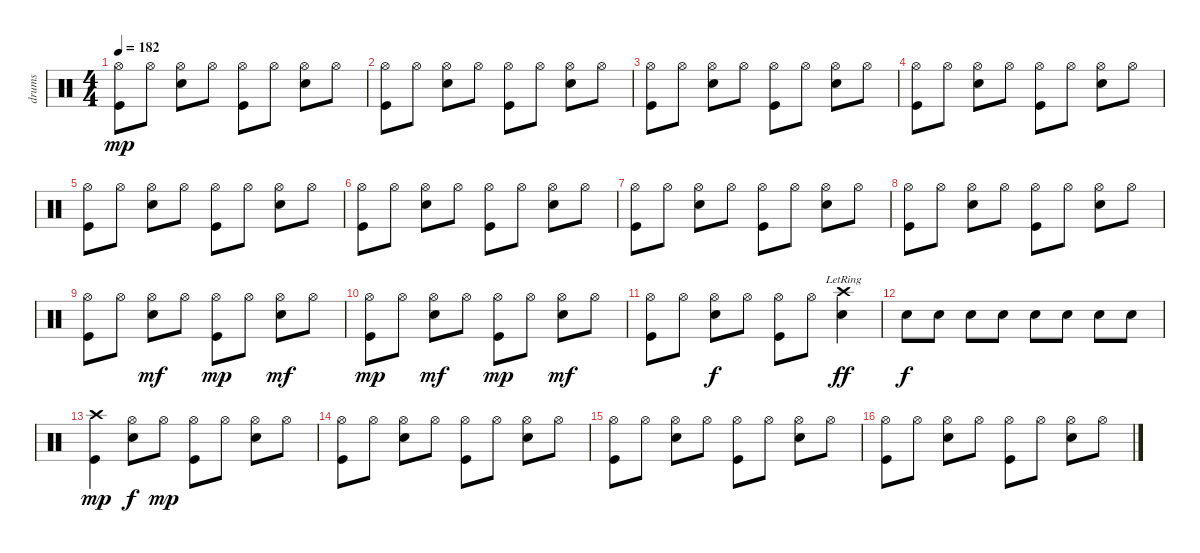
\track ("drums" "drums") {instrument percussion}
\staff {score}
\articulation defaults
\ts (4 4)
\tempo 182
\clef neutral
\ks c
("Kick (hit)" "Hi-Hat (open)").8{dy mp} "Hi-Hat (open)".8 ("Snare (hit) 2" "Hi-Hat (open)").8 "Hi-Hat (open)".8 ("Kick (hit)" "Hi-Hat (open)").8 "Hi-Hat (open)".8 ("Snare (hit) 2" "Hi-Hat (open)").8 "Hi-Hat (open)".8 |
("Kick (hit)" "Hi-Hat (open)").8 "Hi-Hat (open)".8 ("Snare (hit) 2" "Hi-Hat (open)").8 "Hi-Hat (open)".8 ("Kick (hit)" "Hi-Hat (open)").8 "Hi-Hat (open)".8 ("Snare (hit) 2" "Hi-Hat (open)").8 "Hi-Hat (open)".8 |
("Kick (hit)" "Hi-Hat (open)").8 "Hi-Hat (open)".8 ("Snare (hit) 2" "Hi-Hat (open)").8 "Hi-Hat (open)".8 ("Kick (hit)" "Hi-Hat (open)").8 "Hi-Hat (open)".8 ("Snare (hit) 2" "Hi-Hat (open)").8 "Hi-Hat (open)".8 |
("Kick (hit)" "Hi-Hat (open)").8 "Hi-Hat (open)".8 ("Snare (hit) 2" "Hi-Hat (open)").8 "Hi-Hat (open)".8 ("Kick (hit)" "Hi-Hat (open)").8 "Hi-Hat (open)".8 ("Snare (hit) 2" "Hi-Hat (open)").8 "Hi-Hat (open)".8 |
("Kick (hit)" "Hi-Hat (open)").8 "Hi-Hat (open)".8 ("Snare (hit) 2" "Hi-Hat (open)").8 "Hi-Hat (open)".8 ("Kick (hit)" "Hi-Hat (open)").8 "Hi-Hat (open)".8 ("Snare (hit) 2" "Hi-Hat (open)").8 "Hi-Hat (open)".8 |
("Kick (hit)" "Hi-Hat (open)").8 "Hi-Hat (open)".8 ("Snare (hit) 2" "Hi-Hat (open)").8 "Hi-Hat (open)".8 ("Kick (hit)" "Hi-Hat (open)").8 "Hi-Hat (open)".8 ("Snare (hit) 2" "Hi-Hat (open)").8 "Hi-Hat (open)".8 |
("Kick (hit)" "Hi-Hat (open)").8 "Hi-Hat (open)".8 ("Snare (hit) 2" "Hi-Hat (open)").8 "Hi-Hat (open)".8 ("Kick (hit)" "Hi-Hat (open)").8 "Hi-Hat (open)".8 ("Snare (hit) 2" "Hi-Hat (open)").8 "Hi-Hat (open)".8 |
("Kick (hit)" "Hi-Hat (open)").8 "Hi-Hat (open)".8 ("Snare (hit) 2" "Hi-Hat (open)").8 "Hi-Hat (open)".8 ("Kick (hit)" "Hi-Hat (open)").8 "Hi-Hat (open)".8 ("Snare (hit) 2" "Hi-Hat (open)").8 "Hi-Hat (open)".8 |
("Kick (hit)" "Hi-Hat (open)").8 "Hi-Hat (open)".8 ("Snare (hit) 2" "Hi-Hat (open)").8{dy mf} "Hi-Hat (open)".8 ("Kick (hit)" "Hi-Hat (open)").8{dy mp} "Hi-Hat (open)".8 ("Snare (hit) 2" "Hi-Hat (open)").8{dy mf} "Hi-Hat (open)".8 |
("Kick (hit)" "Hi-Hat (open)").8{dy mp} "Hi-Hat (open)".8 ("Snare (hit) 2" "Hi-Hat (open)").8{dy mf} "Hi-Hat (open)".8 ("Kick (hit)" "Hi-Hat (open)").8{dy mp} "Hi-Hat (open)".8 ("Snare (hit) 2" "Hi-Hat (open)").8{dy mf} "Hi-Hat (open)".8 |
("Kick (hit)" "Hi-Hat (open)").8 "Hi-Hat (open)".8 ("Snare (hit) 2" "Hi-Hat (open)").8{dy f} "Hi-Hat (open)".8 ("Kick (hit)" "Hi-Hat (open)").8 "Hi-Hat (open)".8 ("Snare (hit) 2" "Crash high (hit)"{lr}).4{dy ff} |
"Snare (hit) 2".8{dy f} "Snare (hit) 2".8 "Snare (hit) 2".8 "Snare (hit) 2".8 "Snare (hit) 2".8 "Snare (hit) 2".8 "Snare (hit) 2".8 "Snare (hit) 2".8 |
("Kick (hit)" "Crash high (hit)").4{dy mp} ("Snare (hit) 2" "Hi-Hat (open)").8{dy f} "Hi-Hat (open)".8{dy mp} ("Kick (hit)" "Hi-Hat (open)").8 "Hi-Hat (open)".8 ("Snare (hit) 2" "Hi-Hat (open)").8 "Hi-Hat (open)".8 |
("Kick (hit)" "Hi-Hat (open)").8 "Hi-Hat (open)".8 ("Snare (hit) 2" "Hi-Hat (open)").8 "Hi-Hat (open)".8 ("Kick (hit)" "Hi-Hat (open)").8 "Hi-Hat (open)".8 ("Snare (hit) 2" "Hi-Hat (open)").8 "Hi-Hat (open)".8 |
("Kick (hit)" "Hi-Hat (open)").8 "Hi-Hat (open)".8 ("Snare (hit) 2" "Hi-Hat (open)").8 "Hi-Hat (open)".8 ("Kick (hit)" "Hi-Hat (open)").8 "Hi-Hat (open)".8 ("Snare (hit) 2" "Hi-Hat (open)").8 "Hi-Hat (open)".8 |
("Kick (hit)" "Hi-Hat (open)").8 "Hi-Hat (open)".8 ("Snare (hit) 2" "Hi-Hat (open)").8 "Hi-Hat (open)".8 ("Kick (hit)" "Hi-Hat (open)").8 "Hi-Hat (open)".8 ("Snare (hit) 2" "Hi-Hat (open)").8 "Hi-Hat (open)".8
